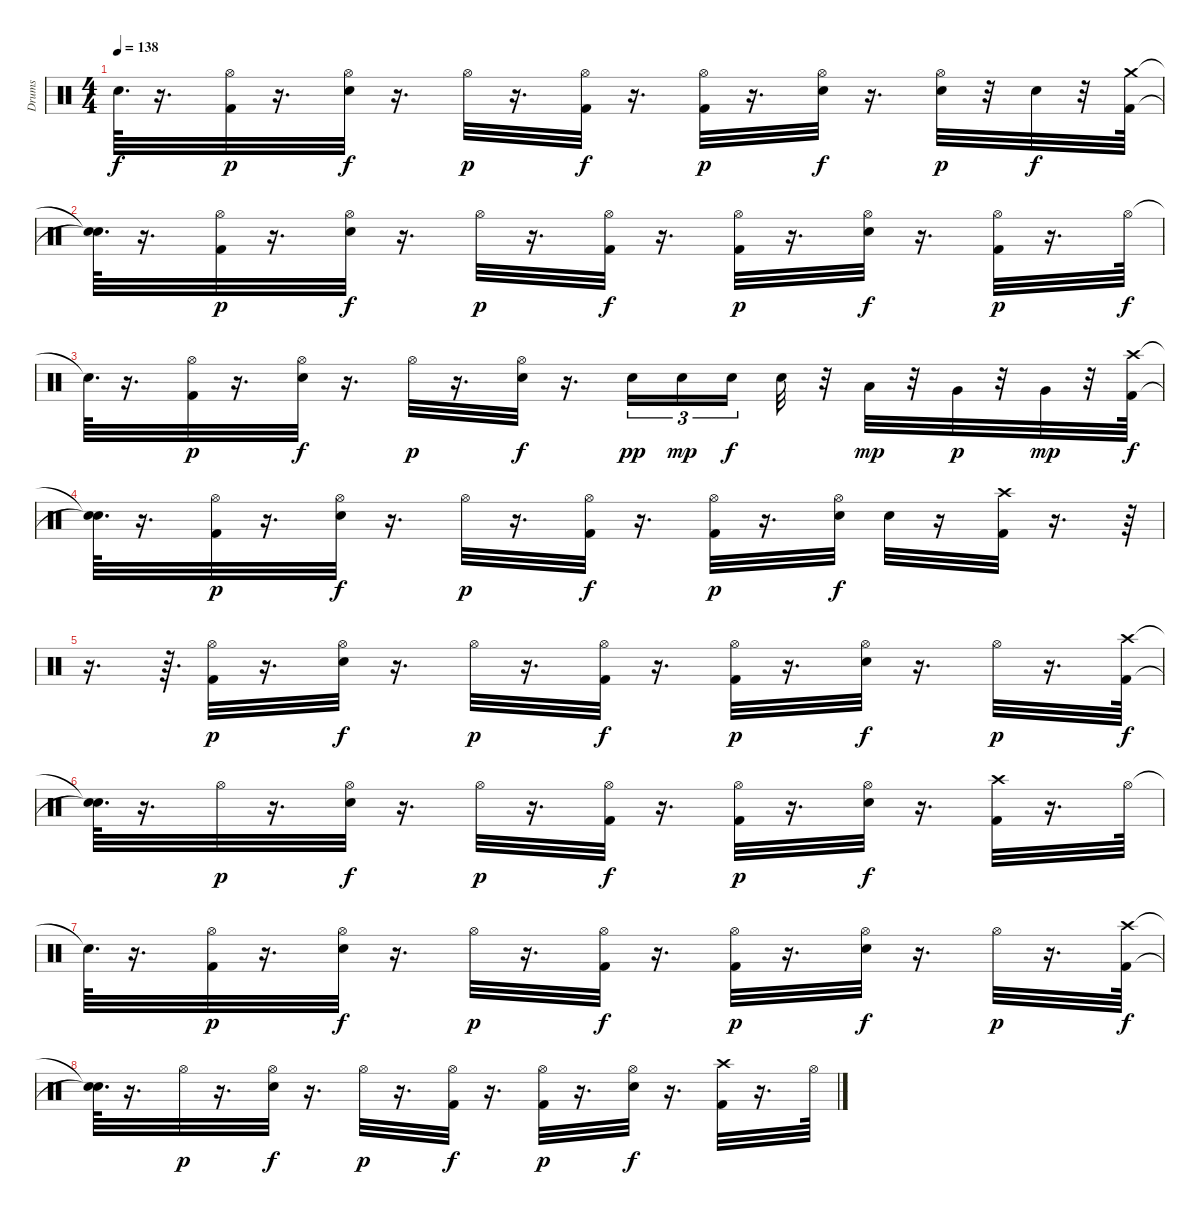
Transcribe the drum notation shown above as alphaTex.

\track ("Drums" "Drums") {instrument percussion}
\staff {score}
\articulation defaults
\ts (4 4)
\tempo 138
\clef neutral
\ks c "Snare (hit)"{t}.64{d dy f}
r.16{d} ("Kick (hit) 2" "Hi-Hat (open)").32{dy p} r.16{d} ("Hi-Hat (open)" "Electric Snare (hit)").32{dy f} r.16{d} "Hi-Hat (open)".32{dy p} r.16{d} ("Hi-Hat (open)" "Kick (hit) 2").32{dy f} r.16{d} ("Kick (hit) 2" "Hi-Hat (open)").32{dy p} r.16{d} ("Hi-Hat (open)" "Electric Snare (hit)").32{dy f} r.16{d} ("Electric Snare (hit)" "Hi-Hat (open)").32{dy p} r.32 "Electric Snare (hit)".32{dy f} r.32 ("Crash medium (hit)" "Kick (hit) 2").64 |
("Snare (hit)"{t} "Snare (hit)"{t}).64{d} r.16{d} ("Kick (hit) 2" "Hi-Hat (open)").32{dy p} r.16{d} ("Hi-Hat (open)" "Electric Snare (hit)").32{dy f} r.16{d} "Hi-Hat (open)".32{dy p} r.16{d} ("Hi-Hat (open)" "Kick (hit) 2").32{dy f} r.16{d} ("Kick (hit) 2" "Hi-Hat (open)").32{dy p} r.16{d} ("Hi-Hat (open)" "Electric Snare (hit)").32{dy f} r.16{d} ("Kick (hit) 2" "Hi-Hat (open)").32{dy p} r.16{d} "Hi-Hat (open)".64{dy f} |
"Snare (hit)"{t}.64{d} r.16{d} ("Kick (hit) 2" "Hi-Hat (open)").32{dy p} r.16{d} ("Hi-Hat (open)" "Electric Snare (hit)").32{dy f} r.16{d} "Hi-Hat (open)".32{dy p} r.16{d} ("Electric Snare (hit)" "Hi-Hat (open)").32{dy f} r.16{d} "Electric Snare (hit)".16{tu (3 2) dy pp} "Electric Snare (hit)".16{tu (3 2) dy mp} "Electric Snare (hit)".16{tu (3 2) dy f beam splitsecondary} "Electric Snare (hit)".32 r.32 "Low Tom (hit)".32{dy mp} r.32 "Very Low Tom (hit)".32{dy p} r.32 "Very Low Tom (hit)".32{dy mp} r.32 ("Crash high (hit)" "Kick (hit) 2").64{dy f} |
("Snare (hit)"{t} "Snare (hit)"{t}).64{d} r.16{d} ("Kick (hit) 2" "Hi-Hat (open)").32{dy p} r.16{d} ("Hi-Hat (open)" "Electric Snare (hit)").32{dy f} r.16{d} "Hi-Hat (open)".32{dy p} r.16{d} ("Hi-Hat (open)" "Kick (hit) 2").32{dy f} r.16{d} ("Kick (hit) 2" "Hi-Hat (open)").32{dy p} r.16{d} ("Hi-Hat (open)" "Electric Snare (hit)").32{dy f} "Snare (hit) 2".32 r.16 ("Crash high (hit)" "Kick (hit) 2").32 r.16{d} r.64 |
r.16{d} r.64{d} ("Kick (hit) 2" "Hi-Hat (open)").32{dy p} r.16{d} ("Hi-Hat (open)" "Electric Snare (hit)").32{dy f} r.16{d} "Hi-Hat (open)".32{dy p} r.16{d} ("Hi-Hat (open)" "Kick (hit) 2").32{dy f} r.16{d} ("Kick (hit) 2" "Hi-Hat (open)").32{dy p} r.16{d} ("Hi-Hat (open)" "Electric Snare (hit)").32{dy f} r.16{d} "Hi-Hat (open)".32{dy p} r.16{d} ("Crash high (hit)" "Kick (hit) 2").64{dy f} |
("Snare (hit)"{t} "Snare (hit)"{t}).64{d} r.16{d} "Hi-Hat (open)".32{dy p} r.16{d} ("Hi-Hat (open)" "Electric Snare (hit)").32{dy f} r.16{d} "Hi-Hat (open)".32{dy p} r.16{d} ("Hi-Hat (open)" "Kick (hit) 2").32{dy f} r.16{d} ("Kick (hit) 2" "Hi-Hat (open)").32{dy p} r.16{d} ("Hi-Hat (open)" "Electric Snare (hit)").32{dy f} r.16{d} ("Crash high (hit)" "Kick (hit) 2").32 r.16{d} "Hi-Hat (open)".64 |
"Snare (hit)"{t}.64{d} r.16{d} ("Kick (hit) 2" "Hi-Hat (open)").32{dy p} r.16{d} ("Hi-Hat (open)" "Electric Snare (hit)").32{dy f} r.16{d} "Hi-Hat (open)".32{dy p} r.16{d} ("Hi-Hat (open)" "Kick (hit) 2").32{dy f} r.16{d} ("Kick (hit) 2" "Hi-Hat (open)").32{dy p} r.16{d} ("Hi-Hat (open)" "Electric Snare (hit)").32{dy f} r.16{d} "Hi-Hat (open)".32{dy p} r.16{d} ("Crash high (hit)" "Kick (hit) 2").64{dy f} |
("Snare (hit)"{t} "Snare (hit)"{t}).64{d} r.16{d} "Hi-Hat (open)".32{dy p} r.16{d} ("Hi-Hat (open)" "Electric Snare (hit)").32{dy f} r.16{d} "Hi-Hat (open)".32{dy p} r.16{d} ("Hi-Hat (open)" "Kick (hit) 2").32{dy f} r.16{d} ("Kick (hit) 2" "Hi-Hat (open)").32{dy p} r.16{d} ("Hi-Hat (open)" "Electric Snare (hit)").32{dy f} r.16{d} ("Crash high (hit)" "Kick (hit) 2").32 r.16{d} "Hi-Hat (open)".64
